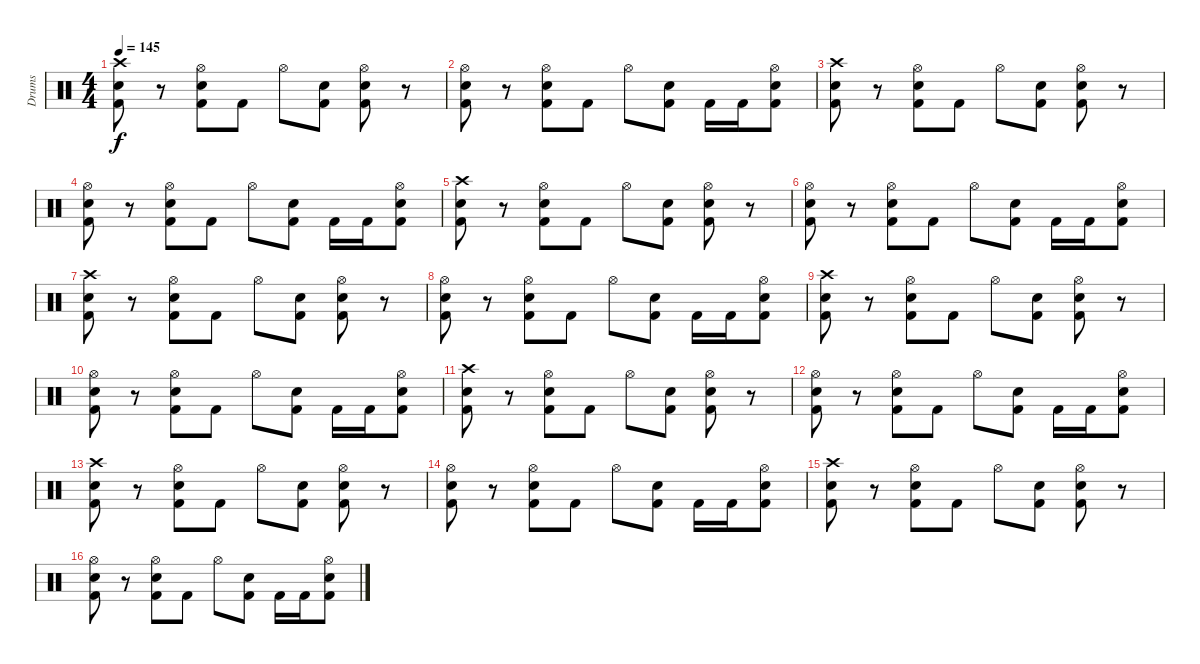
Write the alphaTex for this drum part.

\track ("Drums" "Drums") {instrument percussion}
\staff {score}
\articulation defaults
\ts (4 4)
\tempo 145
\clef neutral
\ks c
("Crash high (hit)" "Snare (hit) 2" "Kick (hit) 2").8{dy f} r.8 ("Snare (hit) 2" "Hi-Hat (open)" "Kick (hit) 2").8 "Kick (hit) 2".8 "Hi-Hat (open)".8 ("Snare (hit) 2" "Kick (hit) 2").8 ("Snare (hit) 2" "Hi-Hat (open)" "Kick (hit) 2").8 r.8 |
("Hi-Hat (open)" "Snare (hit) 2" "Kick (hit) 2").8 r.8 ("Snare (hit) 2" "Hi-Hat (open)" "Kick (hit) 2").8 "Kick (hit) 2".8 "Hi-Hat (open)".8 ("Snare (hit) 2" "Kick (hit) 2").8 "Kick (hit) 2".16 "Kick (hit) 2".16 ("Hi-Hat (open)" "Snare (hit) 2" "Kick (hit) 2").8 |
("Crash high (hit)" "Snare (hit) 2" "Kick (hit) 2").8 r.8 ("Snare (hit) 2" "Hi-Hat (open)" "Kick (hit) 2").8 "Kick (hit) 2".8 "Hi-Hat (open)".8 ("Snare (hit) 2" "Kick (hit) 2").8 ("Snare (hit) 2" "Hi-Hat (open)" "Kick (hit) 2").8 r.8 |
("Hi-Hat (open)" "Snare (hit) 2" "Kick (hit) 2").8 r.8 ("Snare (hit) 2" "Hi-Hat (open)" "Kick (hit) 2").8 "Kick (hit) 2".8 "Hi-Hat (open)".8 ("Snare (hit) 2" "Kick (hit) 2").8 "Kick (hit) 2".16 "Kick (hit) 2".16 ("Hi-Hat (open)" "Snare (hit) 2" "Kick (hit) 2").8 |
("Crash high (hit)" "Snare (hit) 2" "Kick (hit) 2").8 r.8 ("Snare (hit) 2" "Hi-Hat (open)" "Kick (hit) 2").8 "Kick (hit) 2".8 "Hi-Hat (open)".8 ("Snare (hit) 2" "Kick (hit) 2").8 ("Snare (hit) 2" "Hi-Hat (open)" "Kick (hit) 2").8 r.8 |
("Hi-Hat (open)" "Snare (hit) 2" "Kick (hit) 2").8 r.8 ("Snare (hit) 2" "Hi-Hat (open)" "Kick (hit) 2").8 "Kick (hit) 2".8 "Hi-Hat (open)".8 ("Snare (hit) 2" "Kick (hit) 2").8 "Kick (hit) 2".16 "Kick (hit) 2".16 ("Hi-Hat (open)" "Snare (hit) 2" "Kick (hit) 2").8 |
("Crash high (hit)" "Snare (hit) 2" "Kick (hit) 2").8 r.8 ("Snare (hit) 2" "Hi-Hat (open)" "Kick (hit) 2").8 "Kick (hit) 2".8 "Hi-Hat (open)".8 ("Snare (hit) 2" "Kick (hit) 2").8 ("Snare (hit) 2" "Hi-Hat (open)" "Kick (hit) 2").8 r.8 |
("Hi-Hat (open)" "Snare (hit) 2" "Kick (hit) 2").8 r.8 ("Snare (hit) 2" "Hi-Hat (open)" "Kick (hit) 2").8 "Kick (hit) 2".8 "Hi-Hat (open)".8 ("Snare (hit) 2" "Kick (hit) 2").8 "Kick (hit) 2".16 "Kick (hit) 2".16 ("Hi-Hat (open)" "Snare (hit) 2" "Kick (hit) 2").8 |
("Crash high (hit)" "Snare (hit) 2" "Kick (hit) 2").8 r.8 ("Snare (hit) 2" "Hi-Hat (open)" "Kick (hit) 2").8 "Kick (hit) 2".8 "Hi-Hat (open)".8 ("Snare (hit) 2" "Kick (hit) 2").8 ("Snare (hit) 2" "Hi-Hat (open)" "Kick (hit) 2").8 r.8 |
("Hi-Hat (open)" "Snare (hit) 2" "Kick (hit) 2").8 r.8 ("Snare (hit) 2" "Hi-Hat (open)" "Kick (hit) 2").8 "Kick (hit) 2".8 "Hi-Hat (open)".8 ("Snare (hit) 2" "Kick (hit) 2").8 "Kick (hit) 2".16 "Kick (hit) 2".16 ("Hi-Hat (open)" "Snare (hit) 2" "Kick (hit) 2").8 |
("Crash high (hit)" "Snare (hit) 2" "Kick (hit) 2").8 r.8 ("Snare (hit) 2" "Hi-Hat (open)" "Kick (hit) 2").8 "Kick (hit) 2".8 "Hi-Hat (open)".8 ("Snare (hit) 2" "Kick (hit) 2").8 ("Snare (hit) 2" "Hi-Hat (open)" "Kick (hit) 2").8 r.8 |
("Hi-Hat (open)" "Snare (hit) 2" "Kick (hit) 2").8 r.8 ("Snare (hit) 2" "Hi-Hat (open)" "Kick (hit) 2").8 "Kick (hit) 2".8 "Hi-Hat (open)".8 ("Snare (hit) 2" "Kick (hit) 2").8 "Kick (hit) 2".16 "Kick (hit) 2".16 ("Hi-Hat (open)" "Snare (hit) 2" "Kick (hit) 2").8 |
("Crash high (hit)" "Snare (hit) 2" "Kick (hit) 2").8 r.8 ("Snare (hit) 2" "Hi-Hat (open)" "Kick (hit) 2").8 "Kick (hit) 2".8 "Hi-Hat (open)".8 ("Snare (hit) 2" "Kick (hit) 2").8 ("Snare (hit) 2" "Hi-Hat (open)" "Kick (hit) 2").8 r.8 |
("Hi-Hat (open)" "Snare (hit) 2" "Kick (hit) 2").8 r.8 ("Snare (hit) 2" "Hi-Hat (open)" "Kick (hit) 2").8 "Kick (hit) 2".8 "Hi-Hat (open)".8 ("Snare (hit) 2" "Kick (hit) 2").8 "Kick (hit) 2".16 "Kick (hit) 2".16 ("Hi-Hat (open)" "Snare (hit) 2" "Kick (hit) 2").8 |
("Crash high (hit)" "Snare (hit) 2" "Kick (hit) 2").8 r.8 ("Snare (hit) 2" "Hi-Hat (open)" "Kick (hit) 2").8 "Kick (hit) 2".8 "Hi-Hat (open)".8 ("Snare (hit) 2" "Kick (hit) 2").8 ("Snare (hit) 2" "Hi-Hat (open)" "Kick (hit) 2").8 r.8 |
("Hi-Hat (open)" "Snare (hit) 2" "Kick (hit) 2").8 r.8 ("Snare (hit) 2" "Hi-Hat (open)" "Kick (hit) 2").8 "Kick (hit) 2".8 "Hi-Hat (open)".8 ("Snare (hit) 2" "Kick (hit) 2").8 "Kick (hit) 2".16 "Kick (hit) 2".16 ("Hi-Hat (open)" "Snare (hit) 2" "Kick (hit) 2").8
